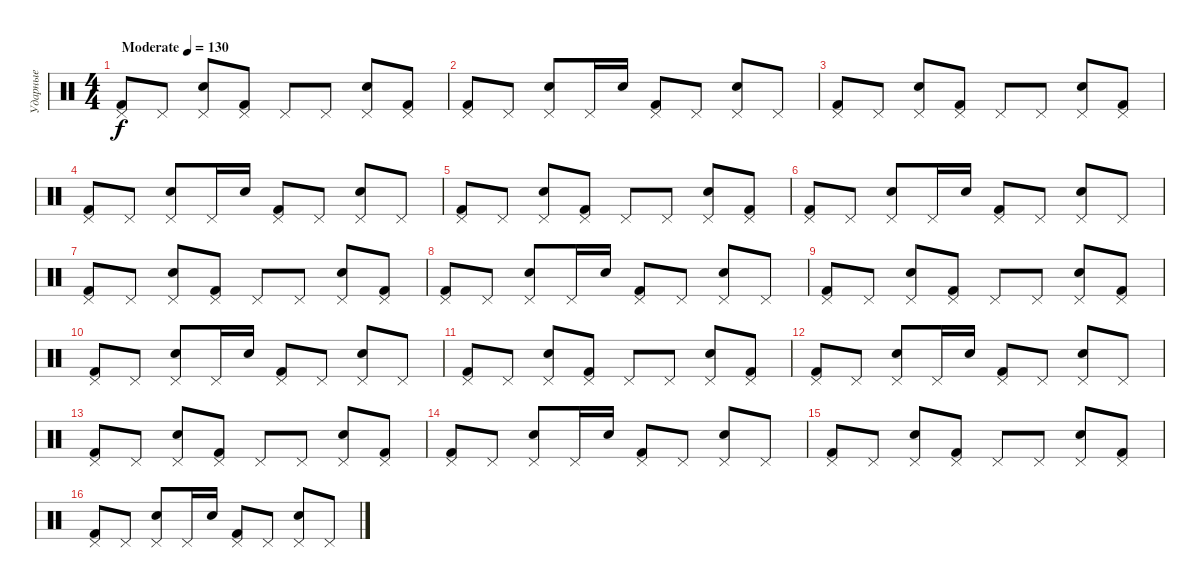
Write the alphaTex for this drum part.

\track ("Ударные" "Ударные") {instrument percussion}
\staff {score}
\articulation defaults
\ts (4 4)
\tempo (130 "Moderate")
\clef neutral
\ks c
("Pedal Hi-Hat (hit)" "Kick (hit) 2").8{dy f} "Pedal Hi-Hat (hit)".8 ("Pedal Hi-Hat (hit)" "Snare (hit) 2").8 ("Pedal Hi-Hat (hit)" "Kick (hit) 2").8 "Pedal Hi-Hat (hit)".8 "Pedal Hi-Hat (hit)".8 ("Pedal Hi-Hat (hit)" "Snare (hit) 2").8 ("Pedal Hi-Hat (hit)" "Kick (hit) 2").8 |
("Pedal Hi-Hat (hit)" "Kick (hit) 2").8 "Pedal Hi-Hat (hit)".8 ("Pedal Hi-Hat (hit)" "Snare (hit) 2").8 "Pedal Hi-Hat (hit)".16 "Snare (hit) 2".16 ("Pedal Hi-Hat (hit)" "Kick (hit) 2").8 "Pedal Hi-Hat (hit)".8 ("Pedal Hi-Hat (hit)" "Snare (hit) 2").8 "Pedal Hi-Hat (hit)".8 |
("Pedal Hi-Hat (hit)" "Kick (hit) 2").8 "Pedal Hi-Hat (hit)".8 ("Pedal Hi-Hat (hit)" "Snare (hit) 2").8 ("Pedal Hi-Hat (hit)" "Kick (hit) 2").8 "Pedal Hi-Hat (hit)".8 "Pedal Hi-Hat (hit)".8 ("Pedal Hi-Hat (hit)" "Snare (hit) 2").8 ("Pedal Hi-Hat (hit)" "Kick (hit) 2").8 |
("Pedal Hi-Hat (hit)" "Kick (hit) 2").8 "Pedal Hi-Hat (hit)".8 ("Pedal Hi-Hat (hit)" "Snare (hit) 2").8 "Pedal Hi-Hat (hit)".16 "Snare (hit) 2".16 ("Pedal Hi-Hat (hit)" "Kick (hit) 2").8 "Pedal Hi-Hat (hit)".8 ("Pedal Hi-Hat (hit)" "Snare (hit) 2").8 "Pedal Hi-Hat (hit)".8 |
("Pedal Hi-Hat (hit)" "Kick (hit) 2").8 "Pedal Hi-Hat (hit)".8 ("Pedal Hi-Hat (hit)" "Snare (hit) 2").8 ("Pedal Hi-Hat (hit)" "Kick (hit) 2").8 "Pedal Hi-Hat (hit)".8 "Pedal Hi-Hat (hit)".8 ("Pedal Hi-Hat (hit)" "Snare (hit) 2").8 ("Pedal Hi-Hat (hit)" "Kick (hit) 2").8 |
("Pedal Hi-Hat (hit)" "Kick (hit) 2").8 "Pedal Hi-Hat (hit)".8 ("Pedal Hi-Hat (hit)" "Snare (hit) 2").8 "Pedal Hi-Hat (hit)".16 "Snare (hit) 2".16 ("Pedal Hi-Hat (hit)" "Kick (hit) 2").8 "Pedal Hi-Hat (hit)".8 ("Pedal Hi-Hat (hit)" "Snare (hit) 2").8 "Pedal Hi-Hat (hit)".8 |
("Pedal Hi-Hat (hit)" "Kick (hit) 2").8 "Pedal Hi-Hat (hit)".8 ("Pedal Hi-Hat (hit)" "Snare (hit) 2").8 ("Pedal Hi-Hat (hit)" "Kick (hit) 2").8 "Pedal Hi-Hat (hit)".8 "Pedal Hi-Hat (hit)".8 ("Pedal Hi-Hat (hit)" "Snare (hit) 2").8 ("Pedal Hi-Hat (hit)" "Kick (hit) 2").8 |
("Pedal Hi-Hat (hit)" "Kick (hit) 2").8 "Pedal Hi-Hat (hit)".8 ("Pedal Hi-Hat (hit)" "Snare (hit) 2").8 "Pedal Hi-Hat (hit)".16 "Snare (hit) 2".16 ("Pedal Hi-Hat (hit)" "Kick (hit) 2").8 "Pedal Hi-Hat (hit)".8 ("Pedal Hi-Hat (hit)" "Snare (hit) 2").8 "Pedal Hi-Hat (hit)".8 |
("Pedal Hi-Hat (hit)" "Kick (hit) 2").8 "Pedal Hi-Hat (hit)".8 ("Pedal Hi-Hat (hit)" "Snare (hit) 2").8 ("Pedal Hi-Hat (hit)" "Kick (hit) 2").8 "Pedal Hi-Hat (hit)".8 "Pedal Hi-Hat (hit)".8 ("Pedal Hi-Hat (hit)" "Snare (hit) 2").8 ("Pedal Hi-Hat (hit)" "Kick (hit) 2").8 |
("Pedal Hi-Hat (hit)" "Kick (hit) 2").8 "Pedal Hi-Hat (hit)".8 ("Pedal Hi-Hat (hit)" "Snare (hit) 2").8 "Pedal Hi-Hat (hit)".16 "Snare (hit) 2".16 ("Pedal Hi-Hat (hit)" "Kick (hit) 2").8 "Pedal Hi-Hat (hit)".8 ("Pedal Hi-Hat (hit)" "Snare (hit) 2").8 "Pedal Hi-Hat (hit)".8 |
("Pedal Hi-Hat (hit)" "Kick (hit) 2").8 "Pedal Hi-Hat (hit)".8 ("Pedal Hi-Hat (hit)" "Snare (hit) 2").8 ("Pedal Hi-Hat (hit)" "Kick (hit) 2").8 "Pedal Hi-Hat (hit)".8 "Pedal Hi-Hat (hit)".8 ("Pedal Hi-Hat (hit)" "Snare (hit) 2").8 ("Pedal Hi-Hat (hit)" "Kick (hit) 2").8 |
("Pedal Hi-Hat (hit)" "Kick (hit) 2").8 "Pedal Hi-Hat (hit)".8 ("Pedal Hi-Hat (hit)" "Snare (hit) 2").8 "Pedal Hi-Hat (hit)".16 "Snare (hit) 2".16 ("Pedal Hi-Hat (hit)" "Kick (hit) 2").8 "Pedal Hi-Hat (hit)".8 ("Pedal Hi-Hat (hit)" "Snare (hit) 2").8 "Pedal Hi-Hat (hit)".8 |
("Pedal Hi-Hat (hit)" "Kick (hit) 2").8 "Pedal Hi-Hat (hit)".8 ("Pedal Hi-Hat (hit)" "Snare (hit) 2").8 ("Pedal Hi-Hat (hit)" "Kick (hit) 2").8 "Pedal Hi-Hat (hit)".8 "Pedal Hi-Hat (hit)".8 ("Pedal Hi-Hat (hit)" "Snare (hit) 2").8 ("Pedal Hi-Hat (hit)" "Kick (hit) 2").8 |
("Pedal Hi-Hat (hit)" "Kick (hit) 2").8 "Pedal Hi-Hat (hit)".8 ("Pedal Hi-Hat (hit)" "Snare (hit) 2").8 "Pedal Hi-Hat (hit)".16 "Snare (hit) 2".16 ("Pedal Hi-Hat (hit)" "Kick (hit) 2").8 "Pedal Hi-Hat (hit)".8 ("Pedal Hi-Hat (hit)" "Snare (hit) 2").8 "Pedal Hi-Hat (hit)".8 |
("Pedal Hi-Hat (hit)" "Kick (hit) 2").8 "Pedal Hi-Hat (hit)".8 ("Pedal Hi-Hat (hit)" "Snare (hit) 2").8 ("Pedal Hi-Hat (hit)" "Kick (hit) 2").8 "Pedal Hi-Hat (hit)".8 "Pedal Hi-Hat (hit)".8 ("Pedal Hi-Hat (hit)" "Snare (hit) 2").8 ("Pedal Hi-Hat (hit)" "Kick (hit) 2").8 |
("Pedal Hi-Hat (hit)" "Kick (hit) 2").8 "Pedal Hi-Hat (hit)".8 ("Pedal Hi-Hat (hit)" "Snare (hit) 2").8 "Pedal Hi-Hat (hit)".16 "Snare (hit) 2".16 ("Pedal Hi-Hat (hit)" "Kick (hit) 2").8 "Pedal Hi-Hat (hit)".8 ("Pedal Hi-Hat (hit)" "Snare (hit) 2").8 "Pedal Hi-Hat (hit)".8
